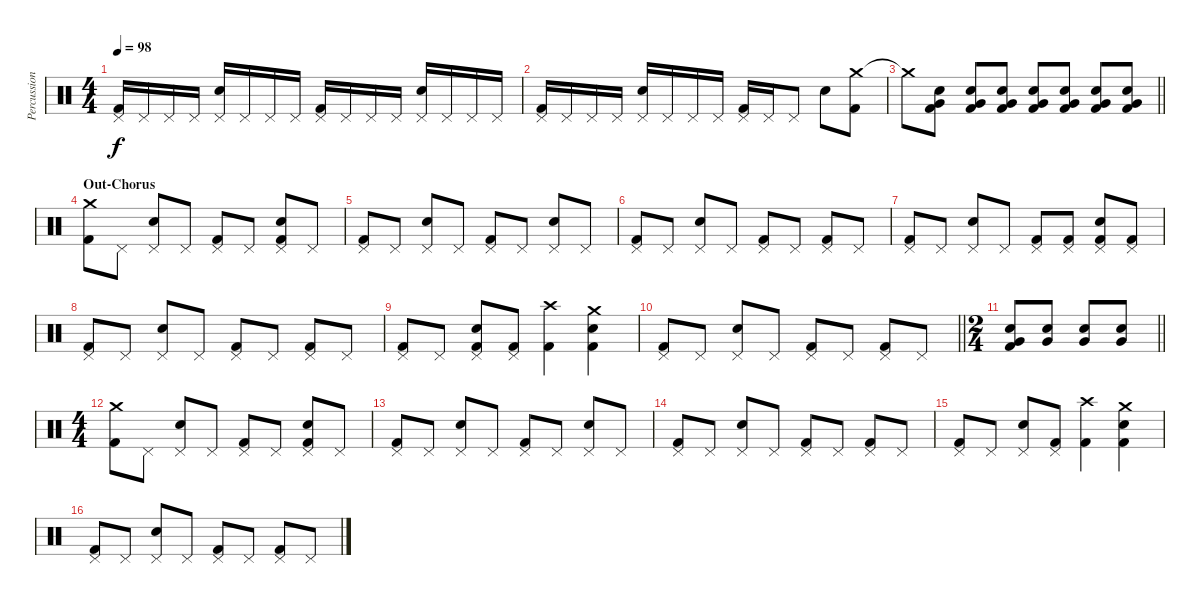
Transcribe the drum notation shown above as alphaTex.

\track ("Percussion" "Percussion") {instrument percussion}
\staff {score}
\articulation defaults
\ts (4 4)
\tempo 98
\clef neutral
\ks c
("Pedal Hi-Hat (hit)" "Kick (hit) 2").16{dy f} "Pedal Hi-Hat (hit)".16 "Pedal Hi-Hat (hit)".16 "Pedal Hi-Hat (hit)".16 ("Pedal Hi-Hat (hit)" "Snare (hit) 2").16 "Pedal Hi-Hat (hit)".16 "Pedal Hi-Hat (hit)".16 "Pedal Hi-Hat (hit)".16 ("Pedal Hi-Hat (hit)" "Kick (hit) 2").16 "Pedal Hi-Hat (hit)".16 "Pedal Hi-Hat (hit)".16 "Pedal Hi-Hat (hit)".16 ("Pedal Hi-Hat (hit)" "Snare (hit) 2").16 "Pedal Hi-Hat (hit)".16 "Pedal Hi-Hat (hit)".16 "Pedal Hi-Hat (hit)".16 |
("Pedal Hi-Hat (hit)" "Kick (hit) 2").16 "Pedal Hi-Hat (hit)".16 "Pedal Hi-Hat (hit)".16 "Pedal Hi-Hat (hit)".16 ("Pedal Hi-Hat (hit)" "Snare (hit) 2").16 "Pedal Hi-Hat (hit)".16 "Pedal Hi-Hat (hit)".16 "Pedal Hi-Hat (hit)".16 ("Pedal Hi-Hat (hit)" "Kick (hit) 2").16 "Pedal Hi-Hat (hit)".16 "Pedal Hi-Hat (hit)".8 "Snare (hit) 2".8 ("Crash medium (hit)" "Kick (hit) 2").8 |
\barLineRight lightlight "Crash medium (hit)"{t}.8
("Snare (hit)" "Very Low Tom (hit)" "Kick (hit) 2").8 ("Snare (hit)" "Very Low Tom (hit)" "Kick (hit) 2").8 ("Snare (hit)" "Very Low Tom (hit)" "Kick (hit) 2").8 ("Snare (hit)" "Very Low Tom (hit)" "Kick (hit) 2").8 ("Snare (hit)" "Very Low Tom (hit)" "Kick (hit) 2").8 ("Snare (hit)" "Very Low Tom (hit)" "Kick (hit) 2").8 ("Snare (hit)" "Very Low Tom (hit)" "Kick (hit) 2").8 |
\section ("" "Out-Chorus")
("Crash medium (hit)" "Kick (hit) 2").8 "Pedal Hi-Hat (hit)".8 ("Pedal Hi-Hat (hit)" "Snare (hit) 2").8 "Pedal Hi-Hat (hit)".8 ("Pedal Hi-Hat (hit)" "Kick (hit) 2").8 "Pedal Hi-Hat (hit)".8 ("Pedal Hi-Hat (hit)" "Snare (hit) 2" "Kick (hit) 2").8 "Pedal Hi-Hat (hit)".8 |
("Pedal Hi-Hat (hit)" "Kick (hit) 2").8 "Pedal Hi-Hat (hit)".8 ("Pedal Hi-Hat (hit)" "Snare (hit) 2").8 "Pedal Hi-Hat (hit)".8 ("Pedal Hi-Hat (hit)" "Kick (hit) 2").8 "Pedal Hi-Hat (hit)".8 ("Pedal Hi-Hat (hit)" "Snare (hit) 2").8 "Pedal Hi-Hat (hit)".8 |
("Pedal Hi-Hat (hit)" "Kick (hit) 2").8 "Pedal Hi-Hat (hit)".8 ("Pedal Hi-Hat (hit)" "Snare (hit) 2").8 "Pedal Hi-Hat (hit)".8 ("Pedal Hi-Hat (hit)" "Kick (hit) 2").8 "Pedal Hi-Hat (hit)".8 ("Pedal Hi-Hat (hit)" "Kick (hit) 2").8 "Pedal Hi-Hat (hit)".8 |
("Pedal Hi-Hat (hit)" "Kick (hit) 2").8 "Pedal Hi-Hat (hit)".8 ("Pedal Hi-Hat (hit)" "Snare (hit) 2").8 "Pedal Hi-Hat (hit)".8 ("Pedal Hi-Hat (hit)" "Kick (hit) 2").8 ("Pedal Hi-Hat (hit)" "Kick (hit) 2").8 ("Pedal Hi-Hat (hit)" "Snare (hit) 2" "Kick (hit) 2").8 ("Pedal Hi-Hat (hit)" "Kick (hit) 2").8 |
("Pedal Hi-Hat (hit)" "Kick (hit) 2").8 "Pedal Hi-Hat (hit)".8 ("Pedal Hi-Hat (hit)" "Snare (hit) 2").8 "Pedal Hi-Hat (hit)".8 ("Pedal Hi-Hat (hit)" "Kick (hit) 2").8 "Pedal Hi-Hat (hit)".8 ("Pedal Hi-Hat (hit)" "Kick (hit) 2").8 "Pedal Hi-Hat (hit)".8 |
("Pedal Hi-Hat (hit)" "Kick (hit) 2").8 "Pedal Hi-Hat (hit)".8 ("Pedal Hi-Hat (hit)" "Snare (hit) 2" "Kick (hit) 2").8 ("Pedal Hi-Hat (hit)" "Kick (hit) 2").8 ("Crash high (hit)" "Kick (hit) 2").4 ("Crash medium (hit)" "Snare (hit) 2" "Kick (hit) 2").4 |
\barLineRight lightlight
("Pedal Hi-Hat (hit)" "Kick (hit) 2").8 "Pedal Hi-Hat (hit)".8 ("Pedal Hi-Hat (hit)" "Snare (hit) 2").8 "Pedal Hi-Hat (hit)".8 ("Pedal Hi-Hat (hit)" "Kick (hit) 2").8 "Pedal Hi-Hat (hit)".8 ("Pedal Hi-Hat (hit)" "Kick (hit) 2").8 "Pedal Hi-Hat (hit)".8 |
\ts (2 4)
\barLineRight lightlight
("Very Low Tom (hit)" "Snare (hit) 2" "Kick (hit) 2").8 ("Very Low Tom (hit)" "Snare (hit) 2").8 ("Very Low Tom (hit)" "Snare (hit) 2").8 ("Very Low Tom (hit)" "Snare (hit) 2").8 |
\ts (4 4)
("Crash medium (hit)" "Kick (hit) 2").8 "Pedal Hi-Hat (hit)".8 ("Pedal Hi-Hat (hit)" "Snare (hit) 2").8 "Pedal Hi-Hat (hit)".8 ("Pedal Hi-Hat (hit)" "Kick (hit) 2").8 "Pedal Hi-Hat (hit)".8 ("Pedal Hi-Hat (hit)" "Snare (hit) 2" "Kick (hit) 2").8 "Pedal Hi-Hat (hit)".8 |
("Pedal Hi-Hat (hit)" "Kick (hit) 2").8 "Pedal Hi-Hat (hit)".8 ("Pedal Hi-Hat (hit)" "Snare (hit) 2").8 "Pedal Hi-Hat (hit)".8 ("Pedal Hi-Hat (hit)" "Kick (hit) 2").8 "Pedal Hi-Hat (hit)".8 ("Pedal Hi-Hat (hit)" "Snare (hit) 2").8 "Pedal Hi-Hat (hit)".8 |
("Pedal Hi-Hat (hit)" "Kick (hit) 2").8 "Pedal Hi-Hat (hit)".8 ("Pedal Hi-Hat (hit)" "Snare (hit) 2").8 "Pedal Hi-Hat (hit)".8 ("Pedal Hi-Hat (hit)" "Kick (hit) 2").8 "Pedal Hi-Hat (hit)".8 ("Pedal Hi-Hat (hit)" "Kick (hit) 2").8 "Pedal Hi-Hat (hit)".8 |
("Pedal Hi-Hat (hit)" "Kick (hit) 2").8 "Pedal Hi-Hat (hit)".8 ("Pedal Hi-Hat (hit)" "Snare (hit) 2").8 ("Pedal Hi-Hat (hit)" "Kick (hit) 2").8 ("Crash high (hit)" "Kick (hit) 2").4 ("Crash medium (hit)" "Snare (hit) 2" "Kick (hit) 2").4 |
("Pedal Hi-Hat (hit)" "Kick (hit) 2").8 "Pedal Hi-Hat (hit)".8 ("Pedal Hi-Hat (hit)" "Snare (hit) 2").8 "Pedal Hi-Hat (hit)".8 ("Pedal Hi-Hat (hit)" "Kick (hit) 2").8 "Pedal Hi-Hat (hit)".8 ("Pedal Hi-Hat (hit)" "Kick (hit) 2").8 "Pedal Hi-Hat (hit)".8
